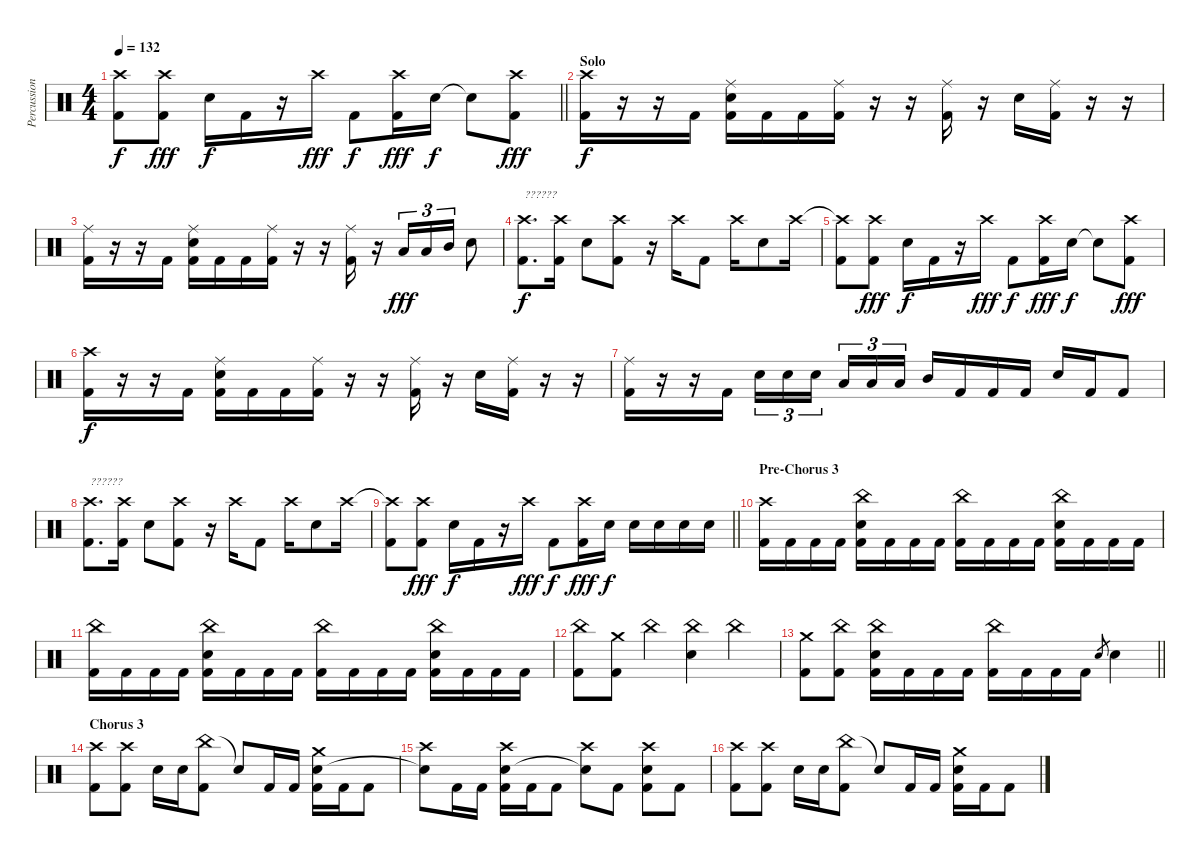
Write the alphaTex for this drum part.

\track ("Percussion" "Percussion") {instrument percussion}
\staff {score}
\articulation defaults
\ts (4 4)
\tempo 132
\clef neutral
\barLineRight lightlight
\ks c
("Crash high (hit)"{t} "Kick (hit) 2").8{dy f} ("Crash high (hit)" "Kick (hit) 2").8{dy fff} "Electric Snare (hit)".16{dy f} "Kick (hit) 2".16 r.16 "Crash high (hit)".16{dy fff} "Kick (hit) 2".8{dy f} ("Crash high (hit)" "Kick (hit) 2").16{dy fff} "Electric Snare (hit)".16{dy f} "Snare (hit)"{t}.8 ("Crash high (hit)" "Kick (hit) 2").8{dy fff} |
\section ("" "Solo")
("Crash high (hit)" "Kick (hit) 2").16{dy f} r.16 r.16 "Kick (hit) 2".16 ("Ride (middle)" "Electric Snare (hit)" "Kick (hit) 2").16 "Kick (hit) 2".16 "Kick (hit) 2".16 ("Ride (middle)" "Kick (hit) 2").16 r.16 r.16 ("Ride (middle)" "Kick (hit) 2").16 r.16 "Electric Snare (hit)".16 ("Ride (middle)" "Kick (hit) 2").16 r.16 r.16 |
("Ride (middle)" "Kick (hit) 2").16 r.16 r.16 "Kick (hit) 2".16 ("Ride (middle)" "Electric Snare (hit)" "Kick (hit) 2").16 "Kick (hit) 2".16 "Kick (hit) 2".16 ("Ride (middle)" "Kick (hit) 2").16 r.16 r.16 ("Ride (middle)" "Kick (hit) 2").16 r.16 "Low Tom (hit)".16{tu (3 2) dy fff} "Low Tom (hit)".16{tu (3 2)} "Mid Tom (hit)".16{tu (3 2)} "Electric Snare (hit)".8 |
("Crash high (hit)" "Kick (hit) 2").8{d txt "??????" dy f} ("Crash high (hit)" "Kick (hit) 2").16 "Electric Snare (hit)".8 ("Crash high (hit)" "Kick (hit) 2").8 r.16 "Crash high (hit)".16 "Kick (hit) 2".8 "Crash high (hit)".16 "Electric Snare (hit)".8 "Crash high (hit)".16 |
("Crash high (hit)"{t} "Kick (hit) 2").8 ("Crash high (hit)" "Kick (hit) 2").8{dy fff} "Electric Snare (hit)".16{dy f} "Kick (hit) 2".16 r.16 "Crash high (hit)".16{dy fff} "Kick (hit) 2".8{dy f} ("Crash high (hit)" "Kick (hit) 2").16{dy fff} "Electric Snare (hit)".16{dy f} "Snare (hit)"{t}.8 ("Crash high (hit)" "Kick (hit) 2").8{dy fff} |
("Crash high (hit)" "Kick (hit) 2").16{dy f} r.16 r.16 "Kick (hit) 2".16 ("Ride (middle)" "Electric Snare (hit)" "Kick (hit) 2").16 "Kick (hit) 2".16 "Kick (hit) 2".16 ("Ride (middle)" "Kick (hit) 2").16 r.16 r.16 ("Ride (middle)" "Kick (hit) 2").16 r.16 "Electric Snare (hit)".16 ("Ride (middle)" "Kick (hit) 2").16 r.16 r.16 |
("Ride (middle)" "Kick (hit) 2").16 r.16 r.16 "Kick (hit) 2".16 "Electric Snare (hit)".16{tu (3 2)} "Electric Snare (hit)".16{tu (3 2)} "Electric Snare (hit)".16{tu (3 2) beam splitsecondary} "Low Tom (hit)".16{tu (3 2)} "Low Tom (hit)".16{tu (3 2)} "Low Tom (hit)".16{tu (3 2)} "Mid Tom (hit)".16 "Kick (hit) 2".16 "Kick (hit) 2".16 "Kick (hit) 2".16 "Electric Snare (hit)".16 "Kick (hit) 2".16 "Kick (hit) 2".8 |
("Crash high (hit)" "Kick (hit) 2").8{d txt "??????"} ("Crash high (hit)" "Kick (hit) 2").16 "Electric Snare (hit)".8 ("Crash high (hit)" "Kick (hit) 2").8 r.16 "Crash high (hit)".16 "Kick (hit) 2".8 "Crash high (hit)".16 "Electric Snare (hit)".8 "Crash high (hit)".16 |
\barLineRight lightlight
("Crash high (hit)"{t} "Kick (hit) 2").8 ("Crash high (hit)" "Kick (hit) 2").8{dy fff} "Electric Snare (hit)".16{dy f} "Kick (hit) 2".16 r.16 "Crash high (hit)".16{dy fff} "Kick (hit) 2".8{dy f} ("Crash high (hit)" "Kick (hit) 2").16{dy fff} "Electric Snare (hit)".16{dy f} "Electric Snare (hit)".16 "Electric Snare (hit)".16 "Electric Snare (hit)".16 "Electric Snare (hit)".16 |
\section ("" "Pre-Chorus 3")
("Crash high (hit)" "Kick (hit) 2").16 "Kick (hit) 2".16 "Kick (hit) 2".16 "Kick (hit) 2".16 ("China (hit)" "Electric Snare (hit)" "Kick (hit) 2").16 "Kick (hit) 2".16 "Kick (hit) 2".16 "Kick (hit) 2".16 ("China (hit)" "Kick (hit) 2").16 "Kick (hit) 2".16 "Kick (hit) 2".16 "Kick (hit) 2".16 ("China (hit)" "Electric Snare (hit)" "Kick (hit) 2").16 "Kick (hit) 2".16 "Kick (hit) 2".16 "Kick (hit) 2".16 |
("China (hit)" "Kick (hit) 2").16 "Kick (hit) 2".16 "Kick (hit) 2".16 "Kick (hit) 2".16 ("China (hit)" "Electric Snare (hit)" "Kick (hit) 2").16 "Kick (hit) 2".16 "Kick (hit) 2".16 "Kick (hit) 2".16 ("China (hit)" "Kick (hit) 2").16 "Kick (hit) 2".16 "Kick (hit) 2".16 "Kick (hit) 2".16 ("China (hit)" "Electric Snare (hit)" "Kick (hit) 2").16 "Kick (hit) 2".16 "Kick (hit) 2".16 "Kick (hit) 2".16 |
("China (hit)" "Kick (hit) 2").8 ("Crash medium (hit)" "Kick (hit) 2").8 "China (hit)".4 ("China (hit)" "Electric Snare (hit)").4 "China (hit)".4 |
\barLineRight lightlight
("Crash medium (hit)" "Kick (hit) 2").8 ("China (hit)" "Kick (hit) 2").8 ("China (hit)" "Electric Snare (hit)" "Kick (hit) 2").16 "Kick (hit) 2".16 "Kick (hit) 2".16 "Kick (hit) 2".16 ("China (hit)" "Kick (hit) 2").16 "Kick (hit) 2".16 "Kick (hit) 2".16 "Kick (hit) 2".16 "Electric Snare (hit)".8{gr} "Electric Snare (hit)".4 |
\section ("" "Chorus 3")
("Crash high (hit)" "Kick (hit) 2").8 ("Crash high (hit)" "Kick (hit) 2").8 "Electric Snare (hit)".16 "Electric Snare (hit)".16 ("China (hit)" "Kick (hit) 2").8 "Snare (hit)"{t}.8 "Kick (hit) 2".16 "Kick (hit) 2".16 ("Crash medium (hit)" "Electric Snare (hit)" "Kick (hit) 2").16 "Kick (hit) 2".16 "Kick (hit) 2".8 |
("Crash high (hit)" "Snare (hit)"{t}).8 "Kick (hit) 2".16 "Kick (hit) 2".16 ("Crash high (hit)" "Electric Snare (hit)" "Kick (hit) 2").16 "Kick (hit) 2".16 "Kick (hit) 2".8 ("Crash high (hit)" "Snare (hit)"{t}).8 "Kick (hit) 2".8 ("Crash high (hit)" "Electric Snare (hit)" "Kick (hit) 2").8 "Kick (hit) 2".8 |
("Crash high (hit)" "Kick (hit) 2").8 ("Crash high (hit)" "Kick (hit) 2").8 "Electric Snare (hit)".16 "Electric Snare (hit)".16 ("China (hit)" "Kick (hit) 2").8 "Snare (hit)"{t}.8 "Kick (hit) 2".16 "Kick (hit) 2".16 ("Crash medium (hit)" "Electric Snare (hit)" "Kick (hit) 2").16 "Kick (hit) 2".16 "Kick (hit) 2".8
